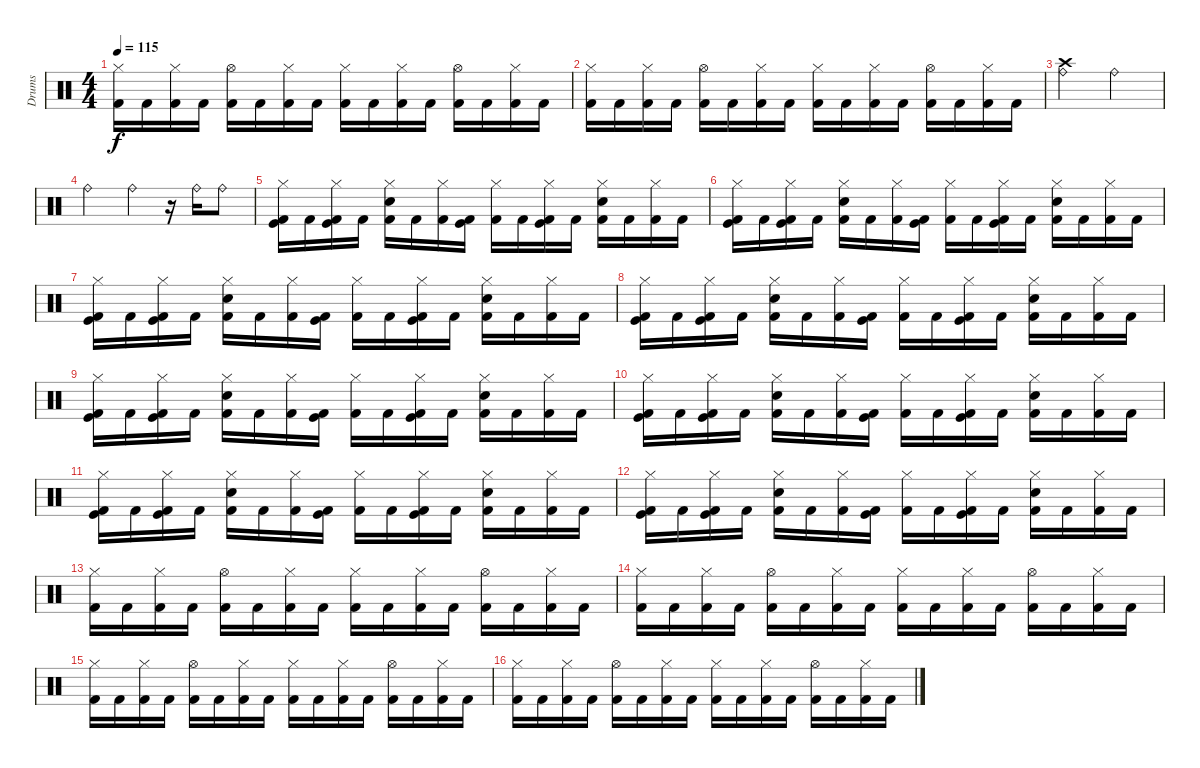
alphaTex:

\track ("Drums" "Drums") {instrument percussion}
\staff {score}
\articulation defaults
\ts (4 4)
\tempo 115
\clef neutral
\ks c
("Hi-Hat (closed)" "Kick (hit) 2").16{dy f} "Kick (hit) 2".16 ("Kick (hit) 2" "Hi-Hat (closed)").16 "Kick (hit) 2".16 ("Kick (hit) 2" "Hi-Hat (open)").16 "Kick (hit) 2".16 ("Kick (hit) 2" "Hi-Hat (closed)").16 "Kick (hit) 2".16 ("Kick (hit) 2" "Hi-Hat (closed)").16 "Kick (hit) 2".16 ("Kick (hit) 2" "Hi-Hat (closed)").16 "Kick (hit) 2".16 ("Kick (hit) 2" "Hi-Hat (open)").16 "Kick (hit) 2".16 ("Kick (hit) 2" "Hi-Hat (closed)").16 "Kick (hit) 2".16 |
("Hi-Hat (closed)" "Kick (hit) 2").16 "Kick (hit) 2".16 ("Kick (hit) 2" "Hi-Hat (closed)").16 "Kick (hit) 2".16 ("Kick (hit) 2" "Hi-Hat (open)").16 "Kick (hit) 2".16 ("Kick (hit) 2" "Hi-Hat (closed)").16 "Kick (hit) 2".16 ("Kick (hit) 2" "Hi-Hat (closed)").16 "Kick (hit) 2".16 ("Kick (hit) 2" "Hi-Hat (closed)").16 "Kick (hit) 2".16 ("Kick (hit) 2" "Hi-Hat (open)").16 "Kick (hit) 2".16 ("Kick (hit) 2" "Hi-Hat (closed)").16 "Kick (hit) 2".16 |
("Crash high (hit)" "Ride (bell)").2 "Ride (bell)".2 |
"Ride (bell)".2 "Ride (bell)".4 r.16 "Ride (bell)".16 "Ride (bell)".8 |
("Kick (hit) 2" "Hi-Hat (closed)" "Kick (hit)").16 "Kick (hit) 2".16 ("Kick (hit) 2" "Hi-Hat (closed)" "Kick (hit)").16 "Kick (hit) 2".16 ("Kick (hit) 2" "Hi-Hat (closed)" "Snare (hit) 2").16 "Kick (hit) 2".16 ("Kick (hit) 2" "Hi-Hat (closed)").16 ("Kick (hit) 2" "Kick (hit)").16 ("Kick (hit) 2" "Hi-Hat (closed)").16 "Kick (hit) 2".16 ("Kick (hit) 2" "Hi-Hat (closed)" "Kick (hit)").16 "Kick (hit) 2".16 ("Kick (hit) 2" "Hi-Hat (closed)" "Snare (hit) 2").16 "Kick (hit) 2".16 ("Kick (hit) 2" "Hi-Hat (closed)").16 "Kick (hit) 2".16 |
("Kick (hit) 2" "Hi-Hat (closed)" "Kick (hit)").16 "Kick (hit) 2".16 ("Kick (hit) 2" "Hi-Hat (closed)" "Kick (hit)").16 "Kick (hit) 2".16 ("Kick (hit) 2" "Hi-Hat (closed)" "Snare (hit) 2").16 "Kick (hit) 2".16 ("Kick (hit) 2" "Hi-Hat (closed)").16 ("Kick (hit) 2" "Kick (hit)").16 ("Kick (hit) 2" "Hi-Hat (closed)").16 "Kick (hit) 2".16 ("Kick (hit) 2" "Hi-Hat (closed)" "Kick (hit)").16 "Kick (hit) 2".16 ("Kick (hit) 2" "Hi-Hat (closed)" "Snare (hit) 2").16 "Kick (hit) 2".16 ("Kick (hit) 2" "Hi-Hat (closed)").16 "Kick (hit) 2".16 |
("Kick (hit) 2" "Hi-Hat (closed)" "Kick (hit)").16 "Kick (hit) 2".16 ("Kick (hit) 2" "Hi-Hat (closed)" "Kick (hit)").16 "Kick (hit) 2".16 ("Kick (hit) 2" "Hi-Hat (closed)" "Snare (hit) 2").16 "Kick (hit) 2".16 ("Kick (hit) 2" "Hi-Hat (closed)").16 ("Kick (hit) 2" "Kick (hit)").16 ("Kick (hit) 2" "Hi-Hat (closed)").16 "Kick (hit) 2".16 ("Kick (hit) 2" "Hi-Hat (closed)" "Kick (hit)").16 "Kick (hit) 2".16 ("Kick (hit) 2" "Hi-Hat (closed)" "Snare (hit) 2").16 "Kick (hit) 2".16 ("Kick (hit) 2" "Hi-Hat (closed)").16 "Kick (hit) 2".16 |
("Kick (hit) 2" "Hi-Hat (closed)" "Kick (hit)").16 "Kick (hit) 2".16 ("Kick (hit) 2" "Hi-Hat (closed)" "Kick (hit)").16 "Kick (hit) 2".16 ("Kick (hit) 2" "Hi-Hat (closed)" "Snare (hit) 2").16 "Kick (hit) 2".16 ("Kick (hit) 2" "Hi-Hat (closed)").16 ("Kick (hit) 2" "Kick (hit)").16 ("Kick (hit) 2" "Hi-Hat (closed)").16 "Kick (hit) 2".16 ("Kick (hit) 2" "Hi-Hat (closed)" "Kick (hit)").16 "Kick (hit) 2".16 ("Kick (hit) 2" "Hi-Hat (closed)" "Snare (hit) 2").16 "Kick (hit) 2".16 ("Kick (hit) 2" "Hi-Hat (closed)").16 "Kick (hit) 2".16 |
("Kick (hit)" "Hi-Hat (closed)" "Kick (hit) 2").16 "Kick (hit) 2".16 ("Kick (hit) 2" "Hi-Hat (closed)" "Kick (hit)").16 "Kick (hit) 2".16 ("Kick (hit) 2" "Hi-Hat (closed)" "Snare (hit) 2").16 "Kick (hit) 2".16 ("Kick (hit) 2" "Hi-Hat (closed)").16 ("Kick (hit) 2" "Kick (hit)").16 ("Kick (hit) 2" "Hi-Hat (closed)").16 "Kick (hit) 2".16 ("Kick (hit) 2" "Hi-Hat (closed)" "Kick (hit)").16 "Kick (hit) 2".16 ("Kick (hit) 2" "Hi-Hat (closed)" "Snare (hit) 2").16 "Kick (hit) 2".16 ("Kick (hit) 2" "Hi-Hat (closed)").16 "Kick (hit) 2".16 |
("Kick (hit)" "Hi-Hat (closed)" "Kick (hit) 2").16 "Kick (hit) 2".16 ("Kick (hit) 2" "Hi-Hat (closed)" "Kick (hit)").16 "Kick (hit) 2".16 ("Kick (hit) 2" "Hi-Hat (closed)" "Snare (hit) 2").16 "Kick (hit) 2".16 ("Kick (hit) 2" "Hi-Hat (closed)").16 ("Kick (hit) 2" "Kick (hit)").16 ("Kick (hit) 2" "Hi-Hat (closed)").16 "Kick (hit) 2".16 ("Kick (hit) 2" "Hi-Hat (closed)" "Kick (hit)").16 "Kick (hit) 2".16 ("Kick (hit) 2" "Hi-Hat (closed)" "Snare (hit) 2").16 "Kick (hit) 2".16 ("Kick (hit) 2" "Hi-Hat (closed)").16 "Kick (hit) 2".16 |
("Kick (hit)" "Hi-Hat (closed)" "Kick (hit) 2").16 "Kick (hit) 2".16 ("Kick (hit) 2" "Hi-Hat (closed)" "Kick (hit)").16 "Kick (hit) 2".16 ("Kick (hit) 2" "Hi-Hat (closed)" "Snare (hit) 2").16 "Kick (hit) 2".16 ("Kick (hit) 2" "Hi-Hat (closed)").16 ("Kick (hit) 2" "Kick (hit)").16 ("Kick (hit) 2" "Hi-Hat (closed)").16 "Kick (hit) 2".16 ("Kick (hit) 2" "Hi-Hat (closed)" "Kick (hit)").16 "Kick (hit) 2".16 ("Kick (hit) 2" "Hi-Hat (closed)" "Snare (hit) 2").16 "Kick (hit) 2".16 ("Kick (hit) 2" "Hi-Hat (closed)").16 "Kick (hit) 2".16 |
("Kick (hit)" "Hi-Hat (closed)" "Kick (hit) 2").16 "Kick (hit) 2".16 ("Kick (hit) 2" "Hi-Hat (closed)" "Kick (hit)").16 "Kick (hit) 2".16 ("Kick (hit) 2" "Hi-Hat (closed)" "Snare (hit) 2").16 "Kick (hit) 2".16 ("Kick (hit) 2" "Hi-Hat (closed)").16 ("Kick (hit) 2" "Kick (hit)").16 ("Kick (hit) 2" "Hi-Hat (closed)").16 "Kick (hit) 2".16 ("Kick (hit) 2" "Hi-Hat (closed)" "Kick (hit)").16 "Kick (hit) 2".16 ("Kick (hit) 2" "Hi-Hat (closed)" "Snare (hit) 2").16 "Kick (hit) 2".16 ("Kick (hit) 2" "Hi-Hat (closed)").16 "Kick (hit) 2".16 |
("Kick (hit) 2" "Hi-Hat (closed)").16 "Kick (hit) 2".16 ("Kick (hit) 2" "Hi-Hat (closed)").16 "Kick (hit) 2".16 ("Kick (hit) 2" "Hi-Hat (open)").16 "Kick (hit) 2".16 ("Kick (hit) 2" "Hi-Hat (closed)").16 "Kick (hit) 2".16 ("Kick (hit) 2" "Hi-Hat (closed)").16 "Kick (hit) 2".16 ("Kick (hit) 2" "Hi-Hat (closed)").16 "Kick (hit) 2".16 ("Kick (hit) 2" "Hi-Hat (open)").16 "Kick (hit) 2".16 ("Kick (hit) 2" "Hi-Hat (closed)").16 "Kick (hit) 2".16 |
("Kick (hit) 2" "Hi-Hat (closed)").16 "Kick (hit) 2".16 ("Kick (hit) 2" "Hi-Hat (closed)").16 "Kick (hit) 2".16 ("Kick (hit) 2" "Hi-Hat (open)").16 "Kick (hit) 2".16 ("Kick (hit) 2" "Hi-Hat (closed)").16 "Kick (hit) 2".16 ("Kick (hit) 2" "Hi-Hat (closed)").16 "Kick (hit) 2".16 ("Kick (hit) 2" "Hi-Hat (closed)").16 "Kick (hit) 2".16 ("Kick (hit) 2" "Hi-Hat (open)").16 "Kick (hit) 2".16 ("Kick (hit) 2" "Hi-Hat (closed)").16 "Kick (hit) 2".16 |
("Kick (hit) 2" "Hi-Hat (closed)").16 "Kick (hit) 2".16 ("Kick (hit) 2" "Hi-Hat (closed)").16 "Kick (hit) 2".16 ("Kick (hit) 2" "Hi-Hat (open)").16 "Kick (hit) 2".16 ("Kick (hit) 2" "Hi-Hat (closed)").16 "Kick (hit) 2".16 ("Kick (hit) 2" "Hi-Hat (closed)").16 "Kick (hit) 2".16 ("Kick (hit) 2" "Hi-Hat (closed)").16 "Kick (hit) 2".16 ("Kick (hit) 2" "Hi-Hat (open)").16 "Kick (hit) 2".16 ("Kick (hit) 2" "Hi-Hat (closed)").16 "Kick (hit) 2".16 |
("Kick (hit) 2" "Hi-Hat (closed)").16 "Kick (hit) 2".16 ("Kick (hit) 2" "Hi-Hat (closed)").16 "Kick (hit) 2".16 ("Kick (hit) 2" "Hi-Hat (open)").16 "Kick (hit) 2".16 ("Kick (hit) 2" "Hi-Hat (closed)").16 "Kick (hit) 2".16 ("Kick (hit) 2" "Hi-Hat (closed)").16 "Kick (hit) 2".16 ("Kick (hit) 2" "Hi-Hat (closed)").16 "Kick (hit) 2".16 ("Kick (hit) 2" "Hi-Hat (open)").16 "Kick (hit) 2".16 ("Kick (hit) 2" "Hi-Hat (closed)").16 "Kick (hit) 2".16
